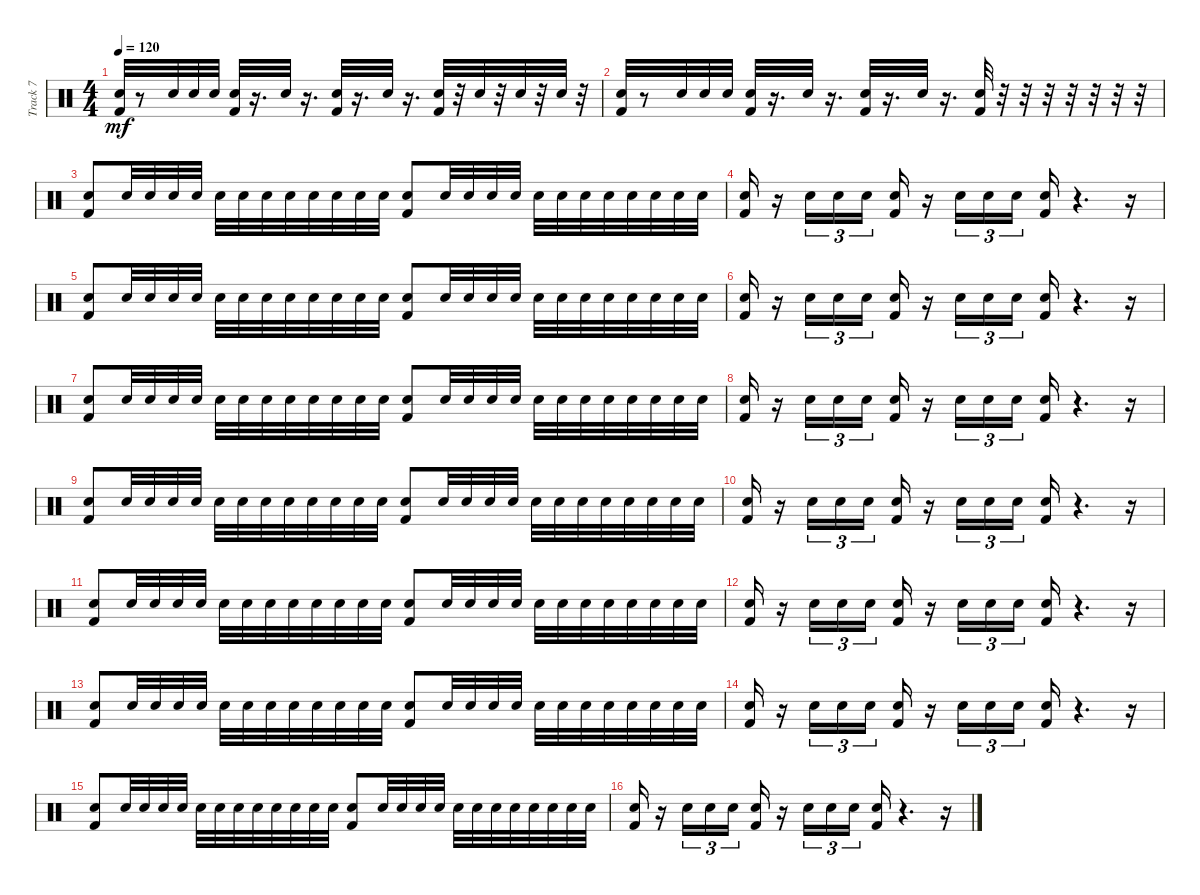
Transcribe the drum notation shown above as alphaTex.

\track ("Track 7" "Track 7") {instrument percussion}
\staff {score}
\articulation defaults
\ts (4 4)
\tempo 120
\clef neutral
\ks c
("Electric Snare (hit)" "Kick (hit) 2").32{dy mf} r.8 "Electric Snare (hit)".32 "Electric Snare (hit)".32 "Electric Snare (hit)".32 ("Electric Snare (hit)" "Kick (hit) 2").32 r.16{d} "Electric Snare (hit)".32 r.16{d} ("Electric Snare (hit)" "Kick (hit) 2").32 r.16{d} "Electric Snare (hit)".32 r.16{d} ("Electric Snare (hit)" "Kick (hit) 2").32 r.32 "Electric Snare (hit)".32 r.32 "Electric Snare (hit)".32 r.32 "Electric Snare (hit)".32 r.32 |
("Electric Snare (hit)" "Kick (hit) 2").32 r.8 "Electric Snare (hit)".32 "Electric Snare (hit)".32 "Electric Snare (hit)".32 ("Electric Snare (hit)" "Kick (hit) 2").32 r.16{d} "Electric Snare (hit)".32 r.16{d} ("Electric Snare (hit)" "Kick (hit) 2").32 r.16{d} "Electric Snare (hit)".32 r.16{d} ("Electric Snare (hit)" "Kick (hit) 2").32 r.32 r.32 r.32 r.32 r.32 r.32 r.32 |
("Electric Snare (hit)" "Kick (hit) 2").8 "Electric Snare (hit)".32 "Electric Snare (hit)".32 "Electric Snare (hit)".32 "Electric Snare (hit)".32 "Electric Snare (hit)".32 "Electric Snare (hit)".32 "Electric Snare (hit)".32 "Electric Snare (hit)".32 "Electric Snare (hit)".32 "Electric Snare (hit)".32 "Electric Snare (hit)".32 "Electric Snare (hit)".32 ("Electric Snare (hit)" "Kick (hit) 2").8 "Electric Snare (hit)".32 "Electric Snare (hit)".32 "Electric Snare (hit)".32 "Electric Snare (hit)".32 "Electric Snare (hit)".32 "Electric Snare (hit)".32 "Electric Snare (hit)".32 "Electric Snare (hit)".32 "Electric Snare (hit)".32 "Electric Snare (hit)".32 "Electric Snare (hit)".32 "Electric Snare (hit)".32 |
("Electric Snare (hit)" "Kick (hit) 2").16 r.16 "Electric Snare (hit)".16{tu (3 2)} "Electric Snare (hit)".16{tu (3 2)} "Electric Snare (hit)".16{tu (3 2)} ("Electric Snare (hit)" "Kick (hit) 2").16 r.16 "Electric Snare (hit)".16{tu (3 2)} "Electric Snare (hit)".16{tu (3 2)} "Electric Snare (hit)".16{tu (3 2)} ("Electric Snare (hit)" "Kick (hit) 2").16 r.4{d} r.16 |
("Electric Snare (hit)" "Kick (hit) 2").8 "Electric Snare (hit)".32 "Electric Snare (hit)".32 "Electric Snare (hit)".32 "Electric Snare (hit)".32 "Electric Snare (hit)".32 "Electric Snare (hit)".32 "Electric Snare (hit)".32 "Electric Snare (hit)".32 "Electric Snare (hit)".32 "Electric Snare (hit)".32 "Electric Snare (hit)".32 "Electric Snare (hit)".32 ("Electric Snare (hit)" "Kick (hit) 2").8 "Electric Snare (hit)".32 "Electric Snare (hit)".32 "Electric Snare (hit)".32 "Electric Snare (hit)".32 "Electric Snare (hit)".32 "Electric Snare (hit)".32 "Electric Snare (hit)".32 "Electric Snare (hit)".32 "Electric Snare (hit)".32 "Electric Snare (hit)".32 "Electric Snare (hit)".32 "Electric Snare (hit)".32 |
("Electric Snare (hit)" "Kick (hit) 2").16 r.16 "Electric Snare (hit)".16{tu (3 2)} "Electric Snare (hit)".16{tu (3 2)} "Electric Snare (hit)".16{tu (3 2)} ("Electric Snare (hit)" "Kick (hit) 2").16 r.16 "Electric Snare (hit)".16{tu (3 2)} "Electric Snare (hit)".16{tu (3 2)} "Electric Snare (hit)".16{tu (3 2)} ("Electric Snare (hit)" "Kick (hit) 2").16 r.4{d} r.16 |
("Electric Snare (hit)" "Kick (hit) 2").8 "Electric Snare (hit)".32 "Electric Snare (hit)".32 "Electric Snare (hit)".32 "Electric Snare (hit)".32 "Electric Snare (hit)".32 "Electric Snare (hit)".32 "Electric Snare (hit)".32 "Electric Snare (hit)".32 "Electric Snare (hit)".32 "Electric Snare (hit)".32 "Electric Snare (hit)".32 "Electric Snare (hit)".32 ("Electric Snare (hit)" "Kick (hit) 2").8 "Electric Snare (hit)".32 "Electric Snare (hit)".32 "Electric Snare (hit)".32 "Electric Snare (hit)".32 "Electric Snare (hit)".32 "Electric Snare (hit)".32 "Electric Snare (hit)".32 "Electric Snare (hit)".32 "Electric Snare (hit)".32 "Electric Snare (hit)".32 "Electric Snare (hit)".32 "Electric Snare (hit)".32 |
("Electric Snare (hit)" "Kick (hit) 2").16 r.16 "Electric Snare (hit)".16{tu (3 2)} "Electric Snare (hit)".16{tu (3 2)} "Electric Snare (hit)".16{tu (3 2)} ("Electric Snare (hit)" "Kick (hit) 2").16 r.16 "Electric Snare (hit)".16{tu (3 2)} "Electric Snare (hit)".16{tu (3 2)} "Electric Snare (hit)".16{tu (3 2)} ("Electric Snare (hit)" "Kick (hit) 2").16 r.4{d} r.16 |
("Electric Snare (hit)" "Kick (hit) 2").8 "Electric Snare (hit)".32 "Electric Snare (hit)".32 "Electric Snare (hit)".32 "Electric Snare (hit)".32 "Electric Snare (hit)".32 "Electric Snare (hit)".32 "Electric Snare (hit)".32 "Electric Snare (hit)".32 "Electric Snare (hit)".32 "Electric Snare (hit)".32 "Electric Snare (hit)".32 "Electric Snare (hit)".32 ("Electric Snare (hit)" "Kick (hit) 2").8 "Electric Snare (hit)".32 "Electric Snare (hit)".32 "Electric Snare (hit)".32 "Electric Snare (hit)".32 "Electric Snare (hit)".32 "Electric Snare (hit)".32 "Electric Snare (hit)".32 "Electric Snare (hit)".32 "Electric Snare (hit)".32 "Electric Snare (hit)".32 "Electric Snare (hit)".32 "Electric Snare (hit)".32 |
("Electric Snare (hit)" "Kick (hit) 2").16 r.16 "Electric Snare (hit)".16{tu (3 2)} "Electric Snare (hit)".16{tu (3 2)} "Electric Snare (hit)".16{tu (3 2)} ("Electric Snare (hit)" "Kick (hit) 2").16 r.16 "Electric Snare (hit)".16{tu (3 2)} "Electric Snare (hit)".16{tu (3 2)} "Electric Snare (hit)".16{tu (3 2)} ("Electric Snare (hit)" "Kick (hit) 2").16 r.4{d} r.16 |
("Electric Snare (hit)" "Kick (hit) 2").8 "Electric Snare (hit)".32 "Electric Snare (hit)".32 "Electric Snare (hit)".32 "Electric Snare (hit)".32 "Electric Snare (hit)".32 "Electric Snare (hit)".32 "Electric Snare (hit)".32 "Electric Snare (hit)".32 "Electric Snare (hit)".32 "Electric Snare (hit)".32 "Electric Snare (hit)".32 "Electric Snare (hit)".32 ("Electric Snare (hit)" "Kick (hit) 2").8 "Electric Snare (hit)".32 "Electric Snare (hit)".32 "Electric Snare (hit)".32 "Electric Snare (hit)".32 "Electric Snare (hit)".32 "Electric Snare (hit)".32 "Electric Snare (hit)".32 "Electric Snare (hit)".32 "Electric Snare (hit)".32 "Electric Snare (hit)".32 "Electric Snare (hit)".32 "Electric Snare (hit)".32 |
("Electric Snare (hit)" "Kick (hit) 2").16 r.16 "Electric Snare (hit)".16{tu (3 2)} "Electric Snare (hit)".16{tu (3 2)} "Electric Snare (hit)".16{tu (3 2)} ("Electric Snare (hit)" "Kick (hit) 2").16 r.16 "Electric Snare (hit)".16{tu (3 2)} "Electric Snare (hit)".16{tu (3 2)} "Electric Snare (hit)".16{tu (3 2)} ("Electric Snare (hit)" "Kick (hit) 2").16 r.4{d} r.16 |
("Electric Snare (hit)" "Kick (hit) 2").8 "Electric Snare (hit)".32 "Electric Snare (hit)".32 "Electric Snare (hit)".32 "Electric Snare (hit)".32 "Electric Snare (hit)".32 "Electric Snare (hit)".32 "Electric Snare (hit)".32 "Electric Snare (hit)".32 "Electric Snare (hit)".32 "Electric Snare (hit)".32 "Electric Snare (hit)".32 "Electric Snare (hit)".32 ("Electric Snare (hit)" "Kick (hit) 2").8 "Electric Snare (hit)".32 "Electric Snare (hit)".32 "Electric Snare (hit)".32 "Electric Snare (hit)".32 "Electric Snare (hit)".32 "Electric Snare (hit)".32 "Electric Snare (hit)".32 "Electric Snare (hit)".32 "Electric Snare (hit)".32 "Electric Snare (hit)".32 "Electric Snare (hit)".32 "Electric Snare (hit)".32 |
("Electric Snare (hit)" "Kick (hit) 2").16 r.16 "Electric Snare (hit)".16{tu (3 2)} "Electric Snare (hit)".16{tu (3 2)} "Electric Snare (hit)".16{tu (3 2)} ("Electric Snare (hit)" "Kick (hit) 2").16 r.16 "Electric Snare (hit)".16{tu (3 2)} "Electric Snare (hit)".16{tu (3 2)} "Electric Snare (hit)".16{tu (3 2)} ("Electric Snare (hit)" "Kick (hit) 2").16 r.4{d} r.16 |
("Electric Snare (hit)" "Kick (hit) 2").8 "Electric Snare (hit)".32 "Electric Snare (hit)".32 "Electric Snare (hit)".32 "Electric Snare (hit)".32 "Electric Snare (hit)".32 "Electric Snare (hit)".32 "Electric Snare (hit)".32 "Electric Snare (hit)".32 "Electric Snare (hit)".32 "Electric Snare (hit)".32 "Electric Snare (hit)".32 "Electric Snare (hit)".32 ("Electric Snare (hit)" "Kick (hit) 2").8 "Electric Snare (hit)".32 "Electric Snare (hit)".32 "Electric Snare (hit)".32 "Electric Snare (hit)".32 "Electric Snare (hit)".32 "Electric Snare (hit)".32 "Electric Snare (hit)".32 "Electric Snare (hit)".32 "Electric Snare (hit)".32 "Electric Snare (hit)".32 "Electric Snare (hit)".32 "Electric Snare (hit)".32 |
("Electric Snare (hit)" "Kick (hit) 2").16 r.16 "Electric Snare (hit)".16{tu (3 2)} "Electric Snare (hit)".16{tu (3 2)} "Electric Snare (hit)".16{tu (3 2)} ("Electric Snare (hit)" "Kick (hit) 2").16 r.16 "Electric Snare (hit)".16{tu (3 2)} "Electric Snare (hit)".16{tu (3 2)} "Electric Snare (hit)".16{tu (3 2)} ("Electric Snare (hit)" "Kick (hit) 2").16 r.4{d} r.16
